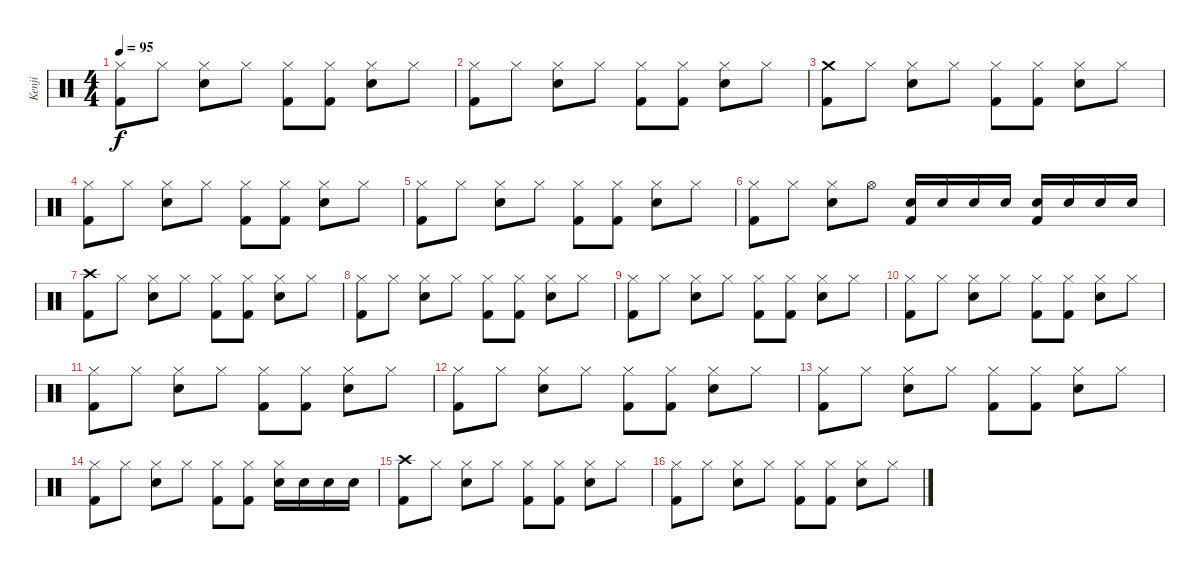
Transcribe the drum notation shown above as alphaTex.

\track ("Kenji" "Kenji") {instrument percussion}
\staff {score}
\articulation defaults
\ts (4 4)
\tempo 95
\clef neutral
\ks c
("Hi-Hat (closed)" "Kick (hit) 2").8{dy f} "Hi-Hat (closed)".8 ("Hi-Hat (closed)" "Electric Snare (hit)").8 "Hi-Hat (closed)".8 ("Hi-Hat (closed)" "Kick (hit) 2").8 ("Hi-Hat (closed)" "Kick (hit) 2").8 ("Hi-Hat (closed)" "Electric Snare (hit)").8 "Hi-Hat (closed)".8 |
("Hi-Hat (closed)" "Kick (hit) 2").8 "Hi-Hat (closed)".8 ("Hi-Hat (closed)" "Electric Snare (hit)").8 "Hi-Hat (closed)".8 ("Hi-Hat (closed)" "Kick (hit) 2").8 ("Hi-Hat (closed)" "Kick (hit) 2").8 ("Hi-Hat (closed)" "Electric Snare (hit)").8 "Hi-Hat (closed)".8 |
("Crash medium (hit)" "Kick (hit) 2").8 "Hi-Hat (closed)".8 ("Hi-Hat (closed)" "Electric Snare (hit)").8 "Hi-Hat (closed)".8 ("Hi-Hat (closed)" "Kick (hit) 2").8 ("Hi-Hat (closed)" "Kick (hit) 2").8 ("Hi-Hat (closed)" "Electric Snare (hit)").8 "Hi-Hat (closed)".8 |
("Hi-Hat (closed)" "Kick (hit) 2").8 "Hi-Hat (closed)".8 ("Hi-Hat (closed)" "Electric Snare (hit)").8 "Hi-Hat (closed)".8 ("Hi-Hat (closed)" "Kick (hit) 2").8 ("Hi-Hat (closed)" "Kick (hit) 2").8 ("Hi-Hat (closed)" "Electric Snare (hit)").8 "Hi-Hat (closed)".8 |
("Hi-Hat (closed)" "Kick (hit) 2").8 "Hi-Hat (closed)".8 ("Hi-Hat (closed)" "Electric Snare (hit)").8 "Hi-Hat (closed)".8 ("Hi-Hat (closed)" "Kick (hit) 2").8 ("Hi-Hat (closed)" "Kick (hit) 2").8 ("Hi-Hat (closed)" "Electric Snare (hit)").8 "Hi-Hat (closed)".8 |
("Hi-Hat (closed)" "Kick (hit) 2").8 "Hi-Hat (closed)".8 ("Hi-Hat (closed)" "Electric Snare (hit)").8 "Hi-Hat (open)".8 ("Electric Snare (hit)" "Kick (hit) 2").16 "Electric Snare (hit)".16 "Electric Snare (hit)".16 "Electric Snare (hit)".16 ("Electric Snare (hit)" "Kick (hit) 2").16 "Electric Snare (hit)".16 "Electric Snare (hit)".16 "Electric Snare (hit)".16 |
("Crash high (hit)" "Kick (hit) 2").8 "Hi-Hat (closed)".8 ("Hi-Hat (closed)" "Electric Snare (hit)").8 "Hi-Hat (closed)".8 ("Hi-Hat (closed)" "Kick (hit) 2").8 ("Hi-Hat (closed)" "Kick (hit) 2").8 ("Hi-Hat (closed)" "Electric Snare (hit)").8 "Hi-Hat (closed)".8 |
("Hi-Hat (closed)" "Kick (hit) 2").8 "Hi-Hat (closed)".8 ("Hi-Hat (closed)" "Electric Snare (hit)").8 "Hi-Hat (closed)".8 ("Hi-Hat (closed)" "Kick (hit) 2").8 ("Hi-Hat (closed)" "Kick (hit) 2").8 ("Hi-Hat (closed)" "Electric Snare (hit)").8 "Hi-Hat (closed)".8 |
("Hi-Hat (closed)" "Kick (hit) 2").8 "Hi-Hat (closed)".8 ("Hi-Hat (closed)" "Electric Snare (hit)").8 "Hi-Hat (closed)".8 ("Hi-Hat (closed)" "Kick (hit) 2").8 ("Hi-Hat (closed)" "Kick (hit) 2").8 ("Hi-Hat (closed)" "Electric Snare (hit)").8 "Hi-Hat (closed)".8 |
("Hi-Hat (closed)" "Kick (hit) 2").8 "Hi-Hat (closed)".8 ("Hi-Hat (closed)" "Electric Snare (hit)").8 "Hi-Hat (closed)".8 ("Hi-Hat (closed)" "Kick (hit) 2").8 ("Hi-Hat (closed)" "Kick (hit) 2").8 ("Hi-Hat (closed)" "Electric Snare (hit)").8 "Hi-Hat (closed)".8 |
("Hi-Hat (closed)" "Kick (hit) 2").8 "Hi-Hat (closed)".8 ("Hi-Hat (closed)" "Electric Snare (hit)").8 "Hi-Hat (closed)".8 ("Hi-Hat (closed)" "Kick (hit) 2").8 ("Hi-Hat (closed)" "Kick (hit) 2").8 ("Hi-Hat (closed)" "Electric Snare (hit)").8 "Hi-Hat (closed)".8 |
("Hi-Hat (closed)" "Kick (hit) 2").8 "Hi-Hat (closed)".8 ("Hi-Hat (closed)" "Electric Snare (hit)").8 "Hi-Hat (closed)".8 ("Hi-Hat (closed)" "Kick (hit) 2").8 ("Hi-Hat (closed)" "Kick (hit) 2").8 ("Hi-Hat (closed)" "Electric Snare (hit)").8 "Hi-Hat (closed)".8 |
("Hi-Hat (closed)" "Kick (hit) 2").8 "Hi-Hat (closed)".8 ("Hi-Hat (closed)" "Electric Snare (hit)").8 "Hi-Hat (closed)".8 ("Hi-Hat (closed)" "Kick (hit) 2").8 ("Hi-Hat (closed)" "Kick (hit) 2").8 ("Hi-Hat (closed)" "Electric Snare (hit)").8 "Hi-Hat (closed)".8 |
("Hi-Hat (closed)" "Kick (hit) 2").8 "Hi-Hat (closed)".8 ("Hi-Hat (closed)" "Electric Snare (hit)").8 "Hi-Hat (closed)".8 ("Hi-Hat (closed)" "Kick (hit) 2").8 ("Hi-Hat (closed)" "Kick (hit) 2").8 ("Hi-Hat (closed)" "Electric Snare (hit)").16 "Electric Snare (hit)".16 "Electric Snare (hit)".16 "Electric Snare (hit)".16 |
("Crash high (hit)" "Kick (hit) 2").8 "Hi-Hat (closed)".8 ("Hi-Hat (closed)" "Electric Snare (hit)").8 "Hi-Hat (closed)".8 ("Hi-Hat (closed)" "Kick (hit) 2").8 ("Hi-Hat (closed)" "Kick (hit) 2").8 ("Hi-Hat (closed)" "Electric Snare (hit)").8 "Hi-Hat (closed)".8 |
("Hi-Hat (closed)" "Kick (hit) 2").8 "Hi-Hat (closed)".8 ("Hi-Hat (closed)" "Electric Snare (hit)").8 "Hi-Hat (closed)".8 ("Hi-Hat (closed)" "Kick (hit) 2").8 ("Hi-Hat (closed)" "Kick (hit) 2").8 ("Hi-Hat (closed)" "Electric Snare (hit)").8 "Hi-Hat (closed)".8
